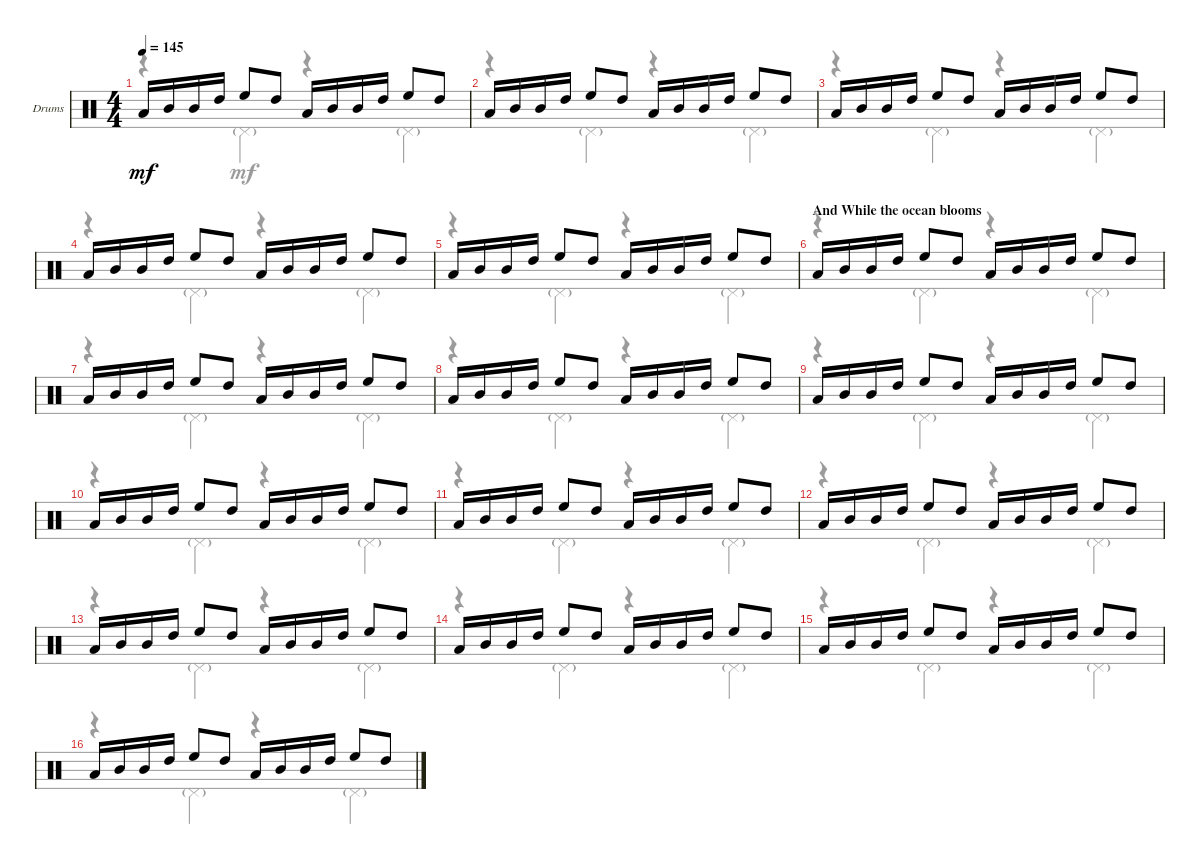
\defaultSystemsLayout 4
\bracketExtendMode groupsimilarinstruments
\firstSystemTrackNameOrientation horizontal
\otherSystemsTrackNameOrientation horizontal
\track ("Drumkit" "Drums") {instrument percussion}
\staff {score}
\articulation defaults
\voice
\ts (4 4)
\tempo 145
\clef neutral
\ks c "Low Tom (hit)".16{dy mf} "Mid Tom (hit)".16 "Mid Tom (hit)".16 "High Tom (hit)".16 "High Floor Tom (hit)".8 "High Tom (hit)".8 "Low Tom (hit)".16 "Mid Tom (hit)".16 "Mid Tom (hit)".16 "High Tom (hit)".16 "High Floor Tom (hit)".8 "High Tom (hit)".8
|
"Low Tom (hit)".16 "Mid Tom (hit)".16 "Mid Tom (hit)".16 "High Tom (hit)".16 "High Floor Tom (hit)".8 "High Tom (hit)".8 "Low Tom (hit)".16 "Mid Tom (hit)".16 "Mid Tom (hit)".16 "High Tom (hit)".16 "High Floor Tom (hit)".8 "High Tom (hit)".8 |
"Low Tom (hit)".16 "Mid Tom (hit)".16 "Mid Tom (hit)".16 "High Tom (hit)".16 "High Floor Tom (hit)".8 "High Tom (hit)".8 "Low Tom (hit)".16 "Mid Tom (hit)".16 "Mid Tom (hit)".16 "High Tom (hit)".16 "High Floor Tom (hit)".8 "High Tom (hit)".8 |
"Low Tom (hit)".16 "Mid Tom (hit)".16 "Mid Tom (hit)".16 "High Tom (hit)".16 "High Floor Tom (hit)".8 "High Tom (hit)".8 "Low Tom (hit)".16 "Mid Tom (hit)".16 "Mid Tom (hit)".16 "High Tom (hit)".16 "High Floor Tom (hit)".8 "High Tom (hit)".8 |
"Low Tom (hit)".16 "Mid Tom (hit)".16 "Mid Tom (hit)".16 "High Tom (hit)".16 "High Floor Tom (hit)".8 "High Tom (hit)".8 "Low Tom (hit)".16 "Mid Tom (hit)".16 "Mid Tom (hit)".16 "High Tom (hit)".16 "High Floor Tom (hit)".8 "High Tom (hit)".8 |
\section ("" "And While the ocean blooms")
"Low Tom (hit)".16 "Mid Tom (hit)".16 "Mid Tom (hit)".16 "High Tom (hit)".16 "High Floor Tom (hit)".8 "High Tom (hit)".8 "Low Tom (hit)".16 "Mid Tom (hit)".16 "Mid Tom (hit)".16 "High Tom (hit)".16 "High Floor Tom (hit)".8 "High Tom (hit)".8 |
"Low Tom (hit)".16 "Mid Tom (hit)".16 "Mid Tom (hit)".16 "High Tom (hit)".16 "High Floor Tom (hit)".8 "High Tom (hit)".8 "Low Tom (hit)".16 "Mid Tom (hit)".16 "Mid Tom (hit)".16 "High Tom (hit)".16 "High Floor Tom (hit)".8 "High Tom (hit)".8 |
"Low Tom (hit)".16 "Mid Tom (hit)".16 "Mid Tom (hit)".16 "High Tom (hit)".16 "High Floor Tom (hit)".8 "High Tom (hit)".8 "Low Tom (hit)".16 "Mid Tom (hit)".16 "Mid Tom (hit)".16 "High Tom (hit)".16 "High Floor Tom (hit)".8 "High Tom (hit)".8 |
"Low Tom (hit)".16 "Mid Tom (hit)".16 "Mid Tom (hit)".16 "High Tom (hit)".16 "High Floor Tom (hit)".8 "High Tom (hit)".8 "Low Tom (hit)".16 "Mid Tom (hit)".16 "Mid Tom (hit)".16 "High Tom (hit)".16 "High Floor Tom (hit)".8 "High Tom (hit)".8 |
"Low Tom (hit)".16 "Mid Tom (hit)".16 "Mid Tom (hit)".16 "High Tom (hit)".16 "High Floor Tom (hit)".8 "High Tom (hit)".8 "Low Tom (hit)".16 "Mid Tom (hit)".16 "Mid Tom (hit)".16 "High Tom (hit)".16 "High Floor Tom (hit)".8 "High Tom (hit)".8 |
"Low Tom (hit)".16 "Mid Tom (hit)".16 "Mid Tom (hit)".16 "High Tom (hit)".16 "High Floor Tom (hit)".8 "High Tom (hit)".8 "Low Tom (hit)".16 "Mid Tom (hit)".16 "Mid Tom (hit)".16 "High Tom (hit)".16 "High Floor Tom (hit)".8 "High Tom (hit)".8 |
"Low Tom (hit)".16 "Mid Tom (hit)".16 "Mid Tom (hit)".16 "High Tom (hit)".16 "High Floor Tom (hit)".8 "High Tom (hit)".8 "Low Tom (hit)".16 "Mid Tom (hit)".16 "Mid Tom (hit)".16 "High Tom (hit)".16 "High Floor Tom (hit)".8 "High Tom (hit)".8 |
"Low Tom (hit)".16 "Mid Tom (hit)".16 "Mid Tom (hit)".16 "High Tom (hit)".16 "High Floor Tom (hit)".8 "High Tom (hit)".8 "Low Tom (hit)".16 "Mid Tom (hit)".16 "Mid Tom (hit)".16 "High Tom (hit)".16 "High Floor Tom (hit)".8 "High Tom (hit)".8 |
"Low Tom (hit)".16 "Mid Tom (hit)".16 "Mid Tom (hit)".16 "High Tom (hit)".16 "High Floor Tom (hit)".8 "High Tom (hit)".8 "Low Tom (hit)".16 "Mid Tom (hit)".16 "Mid Tom (hit)".16 "High Tom (hit)".16 "High Floor Tom (hit)".8 "High Tom (hit)".8 |
"Low Tom (hit)".16 "Mid Tom (hit)".16 "Mid Tom (hit)".16 "High Tom (hit)".16 "High Floor Tom (hit)".8 "High Tom (hit)".8 "Low Tom (hit)".16 "Mid Tom (hit)".16 "Mid Tom (hit)".16 "High Tom (hit)".16 "High Floor Tom (hit)".8 "High Tom (hit)".8 |
"Low Tom (hit)".16 "Mid Tom (hit)".16 "Mid Tom (hit)".16 "High Tom (hit)".16 "High Floor Tom (hit)".8 "High Tom (hit)".8 "Low Tom (hit)".16 "Mid Tom (hit)".16 "Mid Tom (hit)".16 "High Tom (hit)".16 "High Floor Tom (hit)".8 "High Tom (hit)".8
\voice
\clef neutral
\ottava regular
\simile none
\ks c
r.4{dy mf} "Pedal Hi-Hat (hit)"{g}.4 r.4 "Pedal Hi-Hat (hit)"{g}.4 |
r.4 "Pedal Hi-Hat (hit)"{g}.4 r.4 "Pedal Hi-Hat (hit)"{g}.4 |
r.4 "Pedal Hi-Hat (hit)"{g}.4 r.4 "Pedal Hi-Hat (hit)"{g}.4 |
r.4 "Pedal Hi-Hat (hit)"{g}.4 r.4 "Pedal Hi-Hat (hit)"{g}.4 |
r.4 "Pedal Hi-Hat (hit)"{g}.4 r.4 "Pedal Hi-Hat (hit)"{g}.4 |
r.4 "Pedal Hi-Hat (hit)"{g}.4 r.4 "Pedal Hi-Hat (hit)"{g}.4 |
r.4 "Pedal Hi-Hat (hit)"{g}.4 r.4 "Pedal Hi-Hat (hit)"{g}.4 |
r.4 "Pedal Hi-Hat (hit)"{g}.4 r.4 "Pedal Hi-Hat (hit)"{g}.4 |
r.4 "Pedal Hi-Hat (hit)"{g}.4 r.4 "Pedal Hi-Hat (hit)"{g}.4 |
r.4 "Pedal Hi-Hat (hit)"{g}.4 r.4 "Pedal Hi-Hat (hit)"{g}.4 |
r.4 "Pedal Hi-Hat (hit)"{g}.4 r.4 "Pedal Hi-Hat (hit)"{g}.4 |
r.4 "Pedal Hi-Hat (hit)"{g}.4 r.4 "Pedal Hi-Hat (hit)"{g}.4 |
r.4 "Pedal Hi-Hat (hit)"{g}.4 r.4 "Pedal Hi-Hat (hit)"{g}.4 |
r.4 "Pedal Hi-Hat (hit)"{g}.4 r.4 "Pedal Hi-Hat (hit)"{g}.4 |
r.4 "Pedal Hi-Hat (hit)"{g}.4 r.4 "Pedal Hi-Hat (hit)"{g}.4 |
r.4 "Pedal Hi-Hat (hit)"{g}.4 r.4 "Pedal Hi-Hat (hit)"{g}.4
